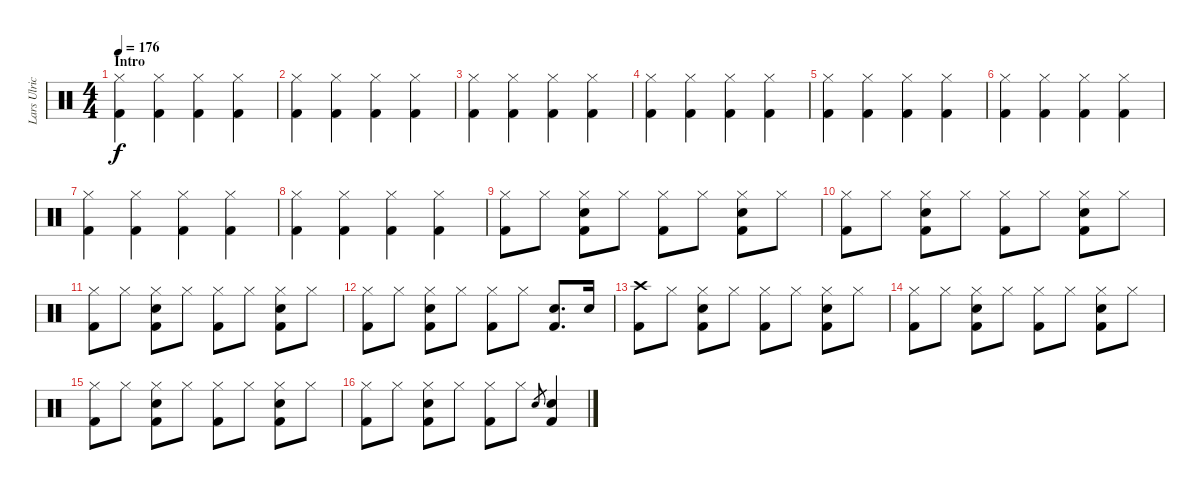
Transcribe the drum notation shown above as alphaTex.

\track ("Lars Ulrich" "Lars Ulric") {instrument percussion}
\staff {score}
\articulation defaults
\ts (4 4)
\section ("" "Intro")
\tempo 176
\clef neutral
\ks c
("Hi-Hat (closed)" "Kick (hit) 2").4{dy f} ("Hi-Hat (closed)" "Kick (hit) 2").4 ("Hi-Hat (closed)" "Kick (hit) 2").4 ("Hi-Hat (closed)" "Kick (hit) 2").4 |
("Hi-Hat (closed)" "Kick (hit) 2").4 ("Hi-Hat (closed)" "Kick (hit) 2").4 ("Hi-Hat (closed)" "Kick (hit) 2").4 ("Hi-Hat (closed)" "Kick (hit) 2").4 |
("Hi-Hat (closed)" "Kick (hit) 2").4 ("Hi-Hat (closed)" "Kick (hit) 2").4 ("Hi-Hat (closed)" "Kick (hit) 2").4 ("Hi-Hat (closed)" "Kick (hit) 2").4 |
("Hi-Hat (closed)" "Kick (hit) 2").4 ("Hi-Hat (closed)" "Kick (hit) 2").4 ("Hi-Hat (closed)" "Kick (hit) 2").4 ("Hi-Hat (closed)" "Kick (hit) 2").4 |
("Hi-Hat (closed)" "Kick (hit) 2").4 ("Hi-Hat (closed)" "Kick (hit) 2").4 ("Hi-Hat (closed)" "Kick (hit) 2").4 ("Hi-Hat (closed)" "Kick (hit) 2").4 |
("Hi-Hat (closed)" "Kick (hit) 2").4 ("Hi-Hat (closed)" "Kick (hit) 2").4 ("Hi-Hat (closed)" "Kick (hit) 2").4 ("Hi-Hat (closed)" "Kick (hit) 2").4 |
("Hi-Hat (closed)" "Kick (hit) 2").4 ("Hi-Hat (closed)" "Kick (hit) 2").4 ("Hi-Hat (closed)" "Kick (hit) 2").4 ("Hi-Hat (closed)" "Kick (hit) 2").4 |
("Hi-Hat (closed)" "Kick (hit) 2").4 ("Hi-Hat (closed)" "Kick (hit) 2").4 ("Hi-Hat (closed)" "Kick (hit) 2").4 ("Hi-Hat (closed)" "Kick (hit) 2").4 |
("Hi-Hat (closed)" "Kick (hit) 2").8 "Hi-Hat (closed)".8 ("Hi-Hat (closed)" "Snare (hit) 2" "Kick (hit) 2").8 "Hi-Hat (closed)".8 ("Hi-Hat (closed)" "Kick (hit) 2").8 "Hi-Hat (closed)".8 ("Hi-Hat (closed)" "Snare (hit) 2" "Kick (hit) 2").8 "Hi-Hat (closed)".8 |
("Hi-Hat (closed)" "Kick (hit) 2").8 "Hi-Hat (closed)".8 ("Hi-Hat (closed)" "Snare (hit) 2" "Kick (hit) 2").8 "Hi-Hat (closed)".8 ("Hi-Hat (closed)" "Kick (hit) 2").8 "Hi-Hat (closed)".8 ("Hi-Hat (closed)" "Snare (hit) 2" "Kick (hit) 2").8 "Hi-Hat (closed)".8 |
("Hi-Hat (closed)" "Kick (hit) 2").8 "Hi-Hat (closed)".8 ("Hi-Hat (closed)" "Snare (hit) 2" "Kick (hit) 2").8 "Hi-Hat (closed)".8 ("Hi-Hat (closed)" "Kick (hit) 2").8 "Hi-Hat (closed)".8 ("Hi-Hat (closed)" "Snare (hit) 2" "Kick (hit) 2").8 "Hi-Hat (closed)".8 |
("Hi-Hat (closed)" "Kick (hit) 2").8 "Hi-Hat (closed)".8 ("Hi-Hat (closed)" "Snare (hit) 2" "Kick (hit) 2").8 "Hi-Hat (closed)".8 ("Hi-Hat (closed)" "Kick (hit) 2").8 "Hi-Hat (closed)".8 ("Snare (hit) 2" "Kick (hit) 2").8{d} "Snare (hit) 2".16 |
("Crash high (hit)" "Kick (hit) 2").8 "Hi-Hat (closed)".8 ("Hi-Hat (closed)" "Snare (hit) 2" "Kick (hit) 2").8 "Hi-Hat (closed)".8 ("Hi-Hat (closed)" "Kick (hit) 2").8 "Hi-Hat (closed)".8 ("Hi-Hat (closed)" "Snare (hit) 2" "Kick (hit) 2").8 "Hi-Hat (closed)".8 |
("Hi-Hat (closed)" "Kick (hit) 2").8 "Hi-Hat (closed)".8 ("Hi-Hat (closed)" "Snare (hit) 2" "Kick (hit) 2").8 "Hi-Hat (closed)".8 ("Hi-Hat (closed)" "Kick (hit) 2").8 "Hi-Hat (closed)".8 ("Hi-Hat (closed)" "Snare (hit) 2" "Kick (hit) 2").8 "Hi-Hat (closed)".8 |
("Hi-Hat (closed)" "Kick (hit) 2").8 "Hi-Hat (closed)".8 ("Hi-Hat (closed)" "Snare (hit) 2" "Kick (hit) 2").8 "Hi-Hat (closed)".8 ("Hi-Hat (closed)" "Kick (hit) 2").8 "Hi-Hat (closed)".8 ("Hi-Hat (closed)" "Snare (hit) 2" "Kick (hit) 2").8 "Hi-Hat (closed)".8 |
("Hi-Hat (closed)" "Kick (hit) 2").8 "Hi-Hat (closed)".8 ("Hi-Hat (closed)" "Snare (hit) 2" "Kick (hit) 2").8 "Hi-Hat (closed)".8 ("Hi-Hat (closed)" "Kick (hit) 2").8 "Hi-Hat (closed)".8 "Snare (hit) 2".8{gr} ("Snare (hit) 2" "Kick (hit) 2").4
